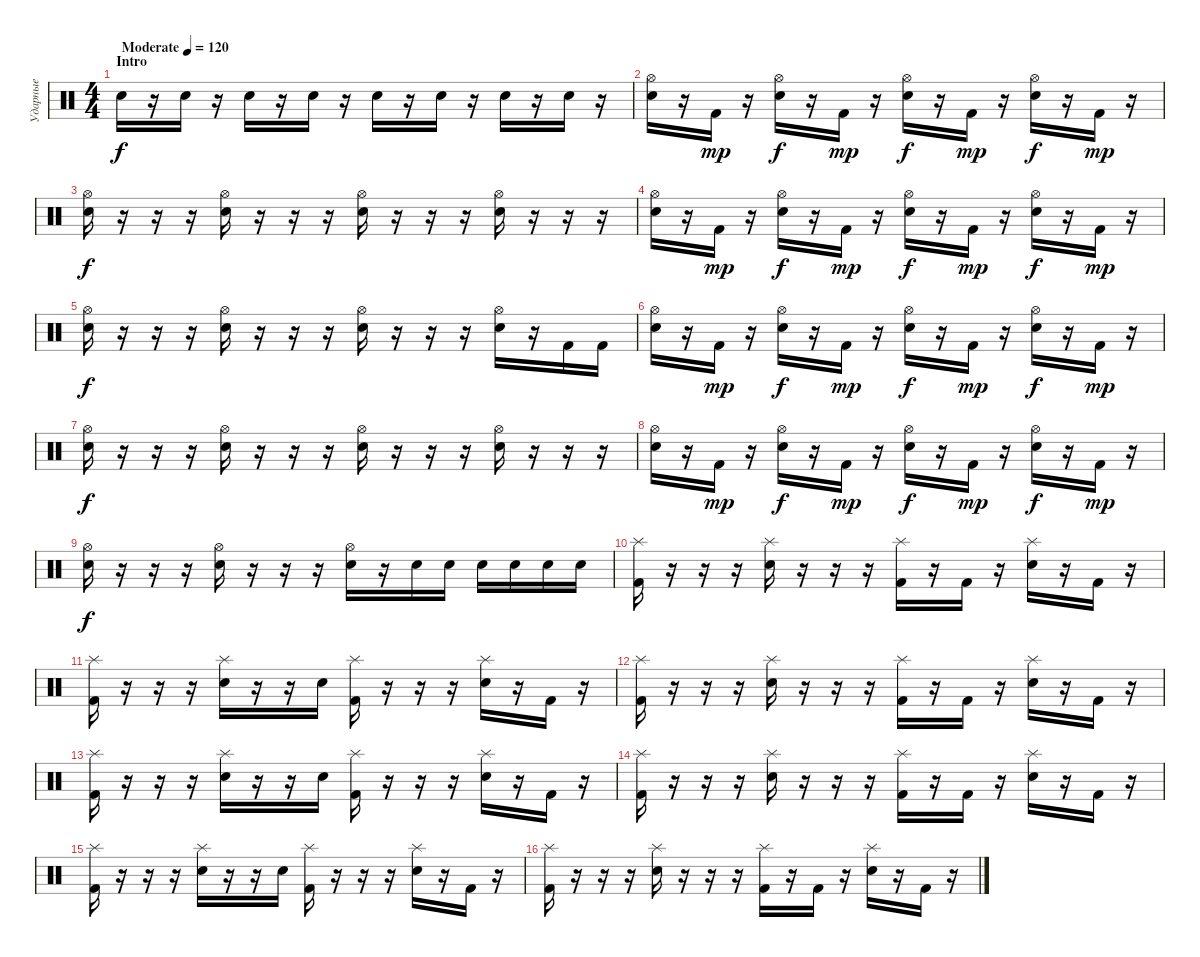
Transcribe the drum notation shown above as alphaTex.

\track ("Ударные" "Ударные") {instrument percussion}
\staff {score}
\articulation defaults
\ts (4 4)
\section ("" "Intro")
\tempo (120 "Moderate")
\tempo 170
\tempo (120 "Moderate")
\clef neutral
\ks c "Snare (hit) 2".16{dy f}
r.16 "Snare (hit) 2".16 r.16 "Snare (hit) 2".16 r.16 "Snare (hit) 2".16 r.16 "Snare (hit) 2".16 r.16 "Snare (hit) 2".16 r.16 "Snare (hit) 2".16 r.16 "Snare (hit) 2".16 r.16 |
("Snare (hit) 2" "Hi-Hat (open)").16 r.16 "Kick (hit) 2".16{dy mp} r.16 ("Snare (hit) 2" "Hi-Hat (open)").16{dy f} r.16 "Kick (hit) 2".16{dy mp} r.16 ("Snare (hit) 2" "Hi-Hat (open)").16{dy f} r.16 "Kick (hit) 2".16{dy mp} r.16 ("Snare (hit) 2" "Hi-Hat (open)").16{dy f} r.16 "Kick (hit) 2".16{dy mp} r.16 |
("Snare (hit) 2" "Hi-Hat (open)").16{dy f} r.16 r.16 r.16 ("Snare (hit) 2" "Hi-Hat (open)").16 r.16 r.16 r.16 ("Snare (hit) 2" "Hi-Hat (open)").16 r.16 r.16 r.16 ("Snare (hit) 2" "Hi-Hat (open)").16 r.16 r.16 r.16 |
("Snare (hit) 2" "Hi-Hat (open)").16 r.16 "Kick (hit) 2".16{dy mp} r.16 ("Snare (hit) 2" "Hi-Hat (open)").16{dy f} r.16 "Kick (hit) 2".16{dy mp} r.16 ("Snare (hit) 2" "Hi-Hat (open)").16{dy f} r.16 "Kick (hit) 2".16{dy mp} r.16 ("Snare (hit) 2" "Hi-Hat (open)").16{dy f} r.16 "Kick (hit) 2".16{dy mp} r.16 |
("Snare (hit) 2" "Hi-Hat (open)").16{dy f} r.16 r.16 r.16 ("Snare (hit) 2" "Hi-Hat (open)").16 r.16 r.16 r.16 ("Snare (hit) 2" "Hi-Hat (open)").16 r.16 r.16 r.16 ("Snare (hit) 2" "Hi-Hat (open)").16 r.16 "Kick (hit) 2".16 "Kick (hit) 2".16 |
("Snare (hit) 2" "Hi-Hat (open)").16 r.16 "Kick (hit) 2".16{dy mp} r.16 ("Snare (hit) 2" "Hi-Hat (open)").16{dy f} r.16 "Kick (hit) 2".16{dy mp} r.16 ("Snare (hit) 2" "Hi-Hat (open)").16{dy f} r.16 "Kick (hit) 2".16{dy mp} r.16 ("Snare (hit) 2" "Hi-Hat (open)").16{dy f} r.16 "Kick (hit) 2".16{dy mp} r.16 |
("Snare (hit) 2" "Hi-Hat (open)").16{dy f} r.16 r.16 r.16 ("Snare (hit) 2" "Hi-Hat (open)").16 r.16 r.16 r.16 ("Snare (hit) 2" "Hi-Hat (open)").16 r.16 r.16 r.16 ("Snare (hit) 2" "Hi-Hat (open)").16 r.16 r.16 r.16 |
("Snare (hit) 2" "Hi-Hat (open)").16 r.16 "Kick (hit) 2".16{dy mp} r.16 ("Snare (hit) 2" "Hi-Hat (open)").16{dy f} r.16 "Kick (hit) 2".16{dy mp} r.16 ("Snare (hit) 2" "Hi-Hat (open)").16{dy f} r.16 "Kick (hit) 2".16{dy mp} r.16 ("Snare (hit) 2" "Hi-Hat (open)").16{dy f} r.16 "Kick (hit) 2".16{dy mp} r.16 |
("Snare (hit) 2" "Hi-Hat (open)").16{dy f} r.16 r.16 r.16 ("Snare (hit) 2" "Hi-Hat (open)").16 r.16 r.16 r.16 ("Snare (hit) 2" "Hi-Hat (open)").16 r.16 "Snare (hit) 2".16 "Snare (hit) 2".16 "Snare (hit) 2".16 "Snare (hit) 2".16 "Snare (hit) 2".16 "Snare (hit) 2".16 |
("Kick (hit) 2" "Splash (hit)").16 r.16 r.16 r.16 ("Splash (hit)" "Snare (hit) 2").16 r.16 r.16 r.16 ("Kick (hit) 2" "Splash (hit)").16 r.16 "Kick (hit) 2".16 r.16 ("Splash (hit)" "Snare (hit) 2").16 r.16 "Kick (hit) 2".16 r.16 |
("Kick (hit) 2" "Splash (hit)").16 r.16 r.16 r.16 ("Splash (hit)" "Snare (hit) 2").16 r.16 r.16 "Snare (hit) 2".16 ("Kick (hit) 2" "Splash (hit)").16 r.16 r.16 r.16 ("Splash (hit)" "Snare (hit) 2").16 r.16 "Kick (hit) 2".16 r.16 |
("Kick (hit) 2" "Splash (hit)").16 r.16 r.16 r.16 ("Splash (hit)" "Snare (hit) 2").16 r.16 r.16 r.16 ("Kick (hit) 2" "Splash (hit)").16 r.16 "Kick (hit) 2".16 r.16 ("Splash (hit)" "Snare (hit) 2").16 r.16 "Kick (hit) 2".16 r.16 |
("Kick (hit) 2" "Splash (hit)").16 r.16 r.16 r.16 ("Splash (hit)" "Snare (hit) 2").16 r.16 r.16 "Snare (hit) 2".16 ("Kick (hit) 2" "Splash (hit)").16 r.16 r.16 r.16 ("Splash (hit)" "Snare (hit) 2").16 r.16 "Kick (hit) 2".16 r.16 |
("Kick (hit) 2" "Splash (hit)").16 r.16 r.16 r.16 ("Splash (hit)" "Snare (hit) 2").16 r.16 r.16 r.16 ("Kick (hit) 2" "Splash (hit)").16 r.16 "Kick (hit) 2".16 r.16 ("Splash (hit)" "Snare (hit) 2").16 r.16 "Kick (hit) 2".16 r.16 |
("Kick (hit) 2" "Splash (hit)").16 r.16 r.16 r.16 ("Splash (hit)" "Snare (hit) 2").16 r.16 r.16 "Snare (hit) 2".16 ("Kick (hit) 2" "Splash (hit)").16 r.16 r.16 r.16 ("Splash (hit)" "Snare (hit) 2").16 r.16 "Kick (hit) 2".16 r.16 |
("Kick (hit) 2" "Splash (hit)").16 r.16 r.16 r.16 ("Splash (hit)" "Snare (hit) 2").16 r.16 r.16 r.16 ("Kick (hit) 2" "Splash (hit)").16 r.16 "Kick (hit) 2".16 r.16 ("Splash (hit)" "Snare (hit) 2").16 r.16 "Kick (hit) 2".16 r.16
